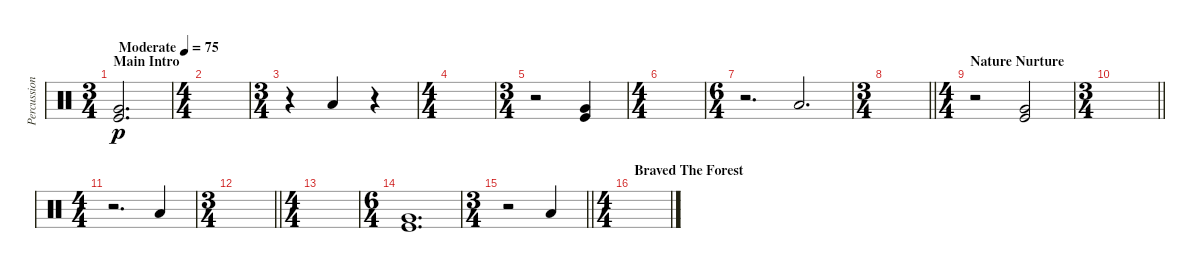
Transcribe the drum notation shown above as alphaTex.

\track ("Percussion" "Percussion") {instrument percussion}
\staff {score}
\articulation defaults
\ts (3 4)
\section ("" "Main Intro")
\tempo (75 "Moderate")
\clef neutral
\ks c
("Very Low Tom (hit)" "Kick (hit)").2{d dy p} |
\ts (4 4)
|
\ts (3 4)
r.4 "Low Floor Tom (hit)".4 r.4 |
\ts (4 4)
|
\ts (3 4)
r.2 ("Very Low Tom (hit)" "Kick (hit)").4 |
\ts (4 4)
|
\ts (6 4)
r.2{d} "Low Floor Tom (hit)".2{d} |
\ts (3 4)
\barLineRight lightlight
|
\ts (4 4)
\section ("" "Nature Nurture")
r.2 ("Very Low Tom (hit)" "Kick (hit)").2 |
\ts (3 4)
\barLineRight lightlight
|
\ts (4 4)
r.2{d} "Low Floor Tom (hit)".4 |
\ts (3 4)
\barLineRight lightlight
|
\ts (4 4)
|
\ts (6 4)
("Very Low Tom (hit)" "Kick (hit)").1{d} |
\ts (3 4)
\barLineRight lightlight
r.2 "Low Floor Tom (hit)".4 |
\ts (4 4)
\section ("" "Braved The Forest")
